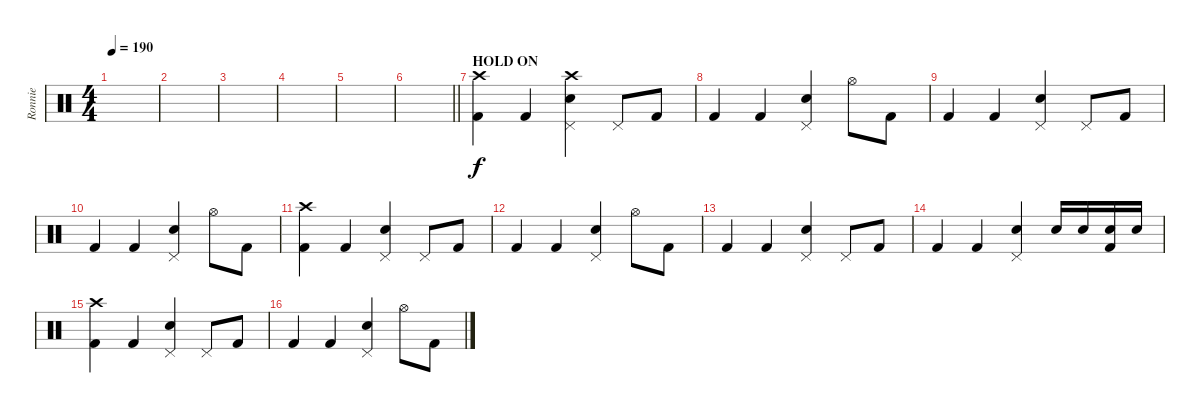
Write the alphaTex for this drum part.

\track ("Ronnie" "Ronnie") {instrument percussion}
\staff {score}
\articulation defaults
\ts (4 4)
\tempo 190
\clef neutral
\ks c
|
|
|
|
|
\barLineRight lightlight
|
\section ("" "HOLD ON")
("Crash high (hit)" "Kick (hit) 2").4 "Kick (hit) 2".4 ("Crash high (hit)" "Electric Snare (hit)" "Pedal Hi-Hat (hit)").4 "Pedal Hi-Hat (hit)".8 "Kick (hit) 2".8 |
"Kick (hit) 2".4 "Kick (hit) 2".4 ("Electric Snare (hit)" "Pedal Hi-Hat (hit)").4 "Hi-Hat (open)".8 "Kick (hit) 2".8 |
"Kick (hit) 2".4 "Kick (hit) 2".4 ("Electric Snare (hit)" "Pedal Hi-Hat (hit)").4 "Pedal Hi-Hat (hit)".8 "Kick (hit) 2".8 |
"Kick (hit) 2".4 "Kick (hit) 2".4 ("Electric Snare (hit)" "Pedal Hi-Hat (hit)").4 "Hi-Hat (open)".8 "Kick (hit) 2".8 |
("Crash high (hit)" "Kick (hit) 2").4 "Kick (hit) 2".4 ("Electric Snare (hit)" "Pedal Hi-Hat (hit)").4 "Pedal Hi-Hat (hit)".8 "Kick (hit) 2".8 |
"Kick (hit) 2".4 "Kick (hit) 2".4 ("Electric Snare (hit)" "Pedal Hi-Hat (hit)").4 "Hi-Hat (open)".8 "Kick (hit) 2".8 |
"Kick (hit) 2".4 "Kick (hit) 2".4 ("Electric Snare (hit)" "Pedal Hi-Hat (hit)").4 "Pedal Hi-Hat (hit)".8 "Kick (hit) 2".8 |
"Kick (hit) 2".4 "Kick (hit) 2".4 ("Electric Snare (hit)" "Pedal Hi-Hat (hit)").4 "Electric Snare (hit)".16 "Electric Snare (hit)".16 ("Electric Snare (hit)" "Kick (hit) 2").16 "Electric Snare (hit)".16 |
("Crash high (hit)" "Kick (hit) 2").4 "Kick (hit) 2".4 ("Electric Snare (hit)" "Pedal Hi-Hat (hit)").4 "Pedal Hi-Hat (hit)".8 "Kick (hit) 2".8 |
"Kick (hit) 2".4 "Kick (hit) 2".4 ("Electric Snare (hit)" "Pedal Hi-Hat (hit)").4 "Hi-Hat (open)".8 "Kick (hit) 2".8
